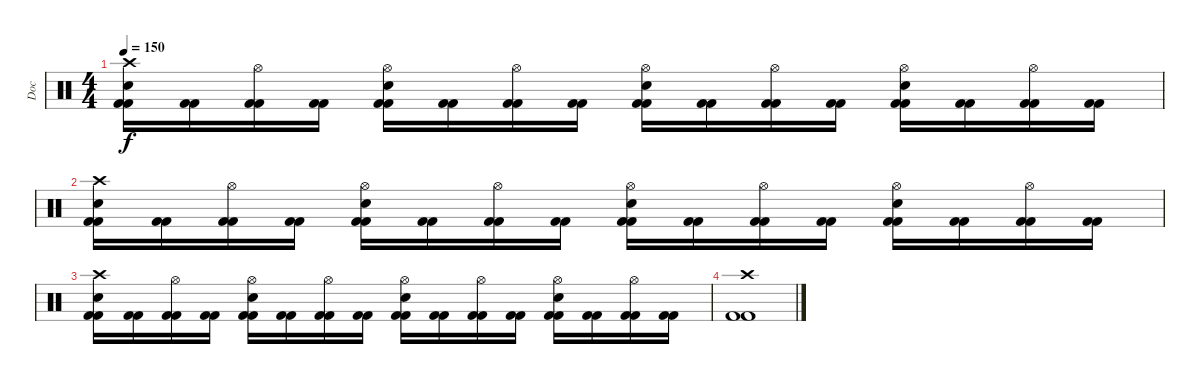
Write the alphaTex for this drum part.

\track ("Doc" "Doc") {instrument percussion}
\staff {score}
\articulation defaults
\ts (4 4)
\tempo 150
\clef neutral
\ks c
("Kick (hit) 2" "Crash high (hit)" "Electric Snare (hit)" "Kick (hit) 2").16{dy f} ("Kick (hit) 2" "Kick (hit) 2").16 ("Kick (hit) 2" "Hi-Hat (open)" "Kick (hit) 2").16 ("Kick (hit) 2" "Kick (hit) 2").16 ("Kick (hit) 2" "Hi-Hat (open)" "Electric Snare (hit)" "Kick (hit) 2").16 ("Kick (hit) 2" "Kick (hit) 2").16 ("Kick (hit) 2" "Hi-Hat (open)" "Kick (hit) 2").16 ("Kick (hit) 2" "Kick (hit) 2").16 ("Kick (hit) 2" "Hi-Hat (open)" "Electric Snare (hit)" "Kick (hit) 2").16 ("Kick (hit) 2" "Kick (hit) 2").16 ("Kick (hit) 2" "Hi-Hat (open)" "Kick (hit) 2").16 ("Kick (hit) 2" "Kick (hit) 2").16 ("Kick (hit) 2" "Hi-Hat (open)" "Electric Snare (hit)" "Kick (hit) 2").16 ("Kick (hit) 2" "Kick (hit) 2").16 ("Kick (hit) 2" "Hi-Hat (open)" "Kick (hit) 2").16 ("Kick (hit) 2" "Kick (hit) 2").16 |
("Kick (hit) 2" "Crash high (hit)" "Electric Snare (hit)" "Kick (hit) 2").16 ("Kick (hit) 2" "Kick (hit) 2").16 ("Kick (hit) 2" "Hi-Hat (open)" "Kick (hit) 2").16 ("Kick (hit) 2" "Kick (hit) 2").16 ("Kick (hit) 2" "Hi-Hat (open)" "Electric Snare (hit)" "Kick (hit) 2").16 ("Kick (hit) 2" "Kick (hit) 2").16 ("Kick (hit) 2" "Hi-Hat (open)" "Kick (hit) 2").16 ("Kick (hit) 2" "Kick (hit) 2").16 ("Kick (hit) 2" "Hi-Hat (open)" "Electric Snare (hit)" "Kick (hit) 2").16 ("Kick (hit) 2" "Kick (hit) 2").16 ("Kick (hit) 2" "Hi-Hat (open)" "Kick (hit) 2").16 ("Kick (hit) 2" "Kick (hit) 2").16 ("Kick (hit) 2" "Hi-Hat (open)" "Electric Snare (hit)" "Kick (hit) 2").16 ("Kick (hit) 2" "Kick (hit) 2").16 ("Kick (hit) 2" "Hi-Hat (open)" "Kick (hit) 2").16 ("Kick (hit) 2" "Kick (hit) 2").16 |
("Kick (hit) 2" "Crash high (hit)" "Electric Snare (hit)" "Kick (hit) 2").16 ("Kick (hit) 2" "Kick (hit) 2").16 ("Kick (hit) 2" "Hi-Hat (open)" "Kick (hit) 2").16 ("Kick (hit) 2" "Kick (hit) 2").16 ("Kick (hit) 2" "Hi-Hat (open)" "Electric Snare (hit)" "Kick (hit) 2").16 ("Kick (hit) 2" "Kick (hit) 2").16 ("Kick (hit) 2" "Hi-Hat (open)" "Kick (hit) 2").16 ("Kick (hit) 2" "Kick (hit) 2").16 ("Kick (hit) 2" "Hi-Hat (open)" "Electric Snare (hit)" "Kick (hit) 2").16 ("Kick (hit) 2" "Kick (hit) 2").16 ("Kick (hit) 2" "Hi-Hat (open)" "Kick (hit) 2").16 ("Kick (hit) 2" "Kick (hit) 2").16 ("Kick (hit) 2" "Hi-Hat (open)" "Electric Snare (hit)" "Kick (hit) 2").16 ("Kick (hit) 2" "Kick (hit) 2").16 ("Kick (hit) 2" "Hi-Hat (open)" "Kick (hit) 2").16 ("Kick (hit) 2" "Kick (hit) 2").16 |
("Crash high (hit)" "Kick (hit) 2" "Kick (hit) 2").1
